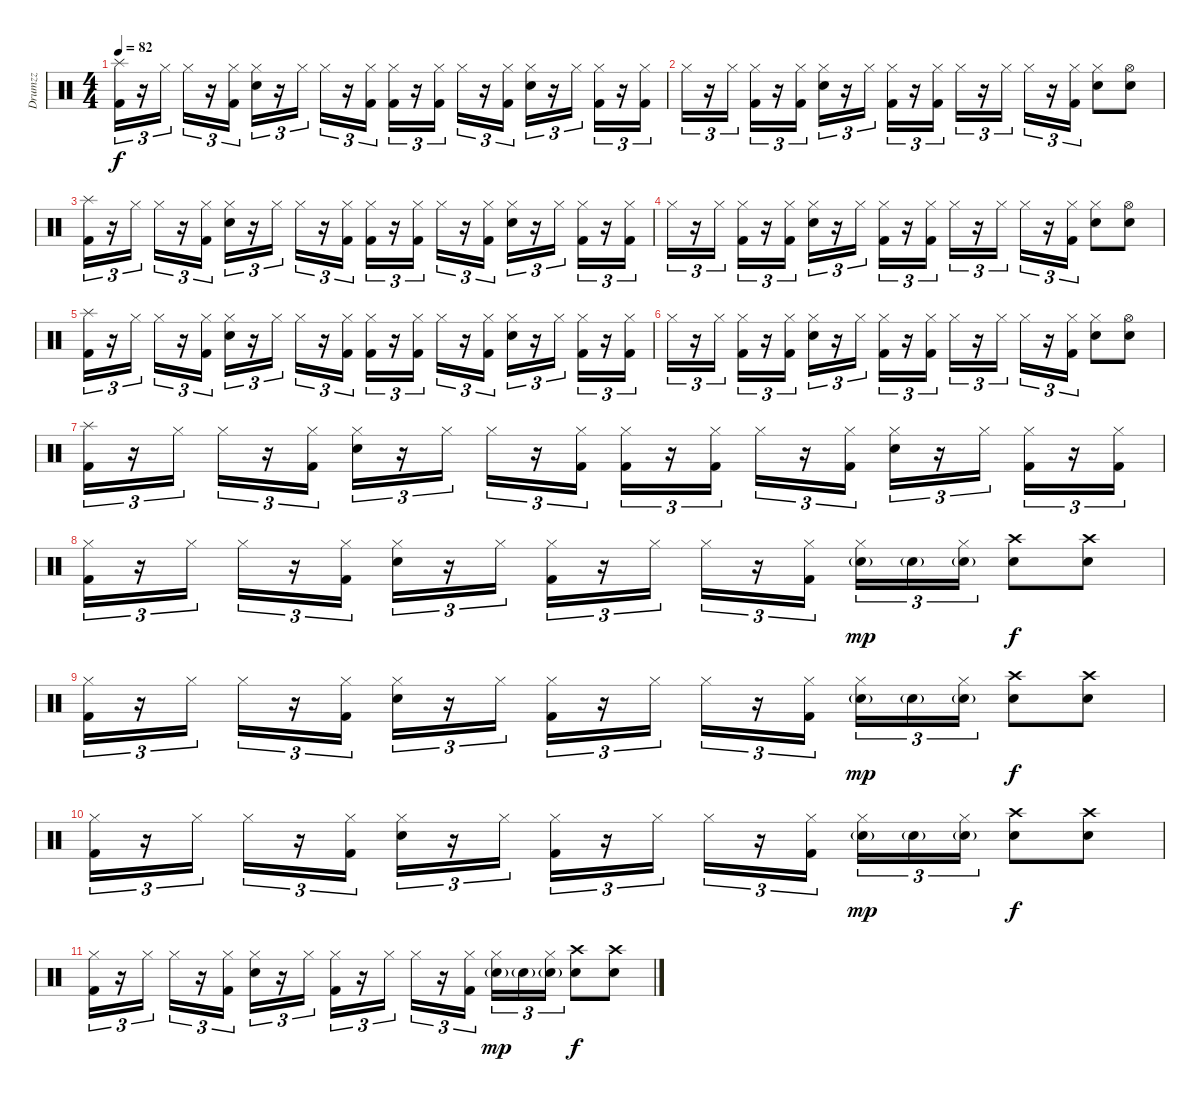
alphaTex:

\track ("Drumzz" "Drumzz") {instrument percussion}
\staff {score}
\articulation defaults
\ts (4 4)
\tempo 82
\clef neutral
\ks c
("Splash (hit)" "Kick (hit) 2").16{tu (3 2) dy f} r.16{tu (3 2)} "Hi-Hat (closed)".16{tu (3 2)} "Hi-Hat (closed)".16{tu (3 2)} r.16{tu (3 2)} ("Hi-Hat (closed)" "Kick (hit) 2").16{tu (3 2)} ("Hi-Hat (closed)" "Snare (hit) 2").16{tu (3 2)} r.16{tu (3 2)} "Hi-Hat (closed)".16{tu (3 2)} "Hi-Hat (closed)".16{tu (3 2)} r.16{tu (3 2)} ("Hi-Hat (closed)" "Kick (hit) 2").16{tu (3 2)} ("Hi-Hat (closed)" "Kick (hit) 2").16{tu (3 2)} r.16{tu (3 2)} ("Hi-Hat (closed)" "Kick (hit) 2").16{tu (3 2)} "Hi-Hat (closed)".16{tu (3 2)} r.16{tu (3 2)} ("Hi-Hat (closed)" "Kick (hit) 2").16{tu (3 2)} ("Hi-Hat (closed)" "Snare (hit) 2").16{tu (3 2)} r.16{tu (3 2)} "Hi-Hat (closed)".16{tu (3 2)} ("Hi-Hat (closed)" "Kick (hit) 2").16{tu (3 2)} r.16{tu (3 2)} ("Hi-Hat (closed)" "Kick (hit) 2").16{tu (3 2)} |
"Hi-Hat (closed)".16{tu (3 2)} r.16{tu (3 2)} "Hi-Hat (closed)".16{tu (3 2)} ("Hi-Hat (closed)" "Kick (hit) 2").16{tu (3 2)} r.16{tu (3 2)} ("Hi-Hat (closed)" "Kick (hit) 2").16{tu (3 2)} ("Hi-Hat (closed)" "Snare (hit) 2").16{tu (3 2)} r.16{tu (3 2)} "Hi-Hat (closed)".16{tu (3 2)} ("Hi-Hat (closed)" "Kick (hit) 2").16{tu (3 2)} r.16{tu (3 2)} ("Hi-Hat (closed)" "Kick (hit) 2").16{tu (3 2)} "Hi-Hat (closed)".16{tu (3 2)} r.16{tu (3 2)} "Hi-Hat (closed)".16{tu (3 2)} "Hi-Hat (closed)".16{tu (3 2)} r.16{tu (3 2)} ("Hi-Hat (closed)" "Kick (hit) 2").16{tu (3 2)} ("Hi-Hat (closed)" "Snare (hit) 2").8 ("Hi-Hat (open)" "Snare (hit) 2").8 |
("Splash (hit)" "Kick (hit) 2").16{tu (3 2)} r.16{tu (3 2)} "Hi-Hat (closed)".16{tu (3 2)} "Hi-Hat (closed)".16{tu (3 2)} r.16{tu (3 2)} ("Hi-Hat (closed)" "Kick (hit) 2").16{tu (3 2)} ("Hi-Hat (closed)" "Snare (hit) 2").16{tu (3 2)} r.16{tu (3 2)} "Hi-Hat (closed)".16{tu (3 2)} "Hi-Hat (closed)".16{tu (3 2)} r.16{tu (3 2)} ("Hi-Hat (closed)" "Kick (hit) 2").16{tu (3 2)} ("Hi-Hat (closed)" "Kick (hit) 2").16{tu (3 2)} r.16{tu (3 2)} ("Hi-Hat (closed)" "Kick (hit) 2").16{tu (3 2)} "Hi-Hat (closed)".16{tu (3 2)} r.16{tu (3 2)} ("Hi-Hat (closed)" "Kick (hit) 2").16{tu (3 2)} ("Hi-Hat (closed)" "Snare (hit) 2").16{tu (3 2)} r.16{tu (3 2)} "Hi-Hat (closed)".16{tu (3 2)} ("Hi-Hat (closed)" "Kick (hit) 2").16{tu (3 2)} r.16{tu (3 2)} ("Hi-Hat (closed)" "Kick (hit) 2").16{tu (3 2)} |
"Hi-Hat (closed)".16{tu (3 2)} r.16{tu (3 2)} "Hi-Hat (closed)".16{tu (3 2)} ("Hi-Hat (closed)" "Kick (hit) 2").16{tu (3 2)} r.16{tu (3 2)} ("Hi-Hat (closed)" "Kick (hit) 2").16{tu (3 2)} ("Hi-Hat (closed)" "Snare (hit) 2").16{tu (3 2)} r.16{tu (3 2)} "Hi-Hat (closed)".16{tu (3 2)} ("Hi-Hat (closed)" "Kick (hit) 2").16{tu (3 2)} r.16{tu (3 2)} ("Hi-Hat (closed)" "Kick (hit) 2").16{tu (3 2)} "Hi-Hat (closed)".16{tu (3 2)} r.16{tu (3 2)} "Hi-Hat (closed)".16{tu (3 2)} "Hi-Hat (closed)".16{tu (3 2)} r.16{tu (3 2)} ("Hi-Hat (closed)" "Kick (hit) 2").16{tu (3 2)} ("Hi-Hat (closed)" "Snare (hit) 2").8 ("Hi-Hat (open)" "Snare (hit) 2").8 |
("Splash (hit)" "Kick (hit) 2").16{tu (3 2)} r.16{tu (3 2)} "Hi-Hat (closed)".16{tu (3 2)} "Hi-Hat (closed)".16{tu (3 2)} r.16{tu (3 2)} ("Hi-Hat (closed)" "Kick (hit) 2").16{tu (3 2)} ("Hi-Hat (closed)" "Snare (hit) 2").16{tu (3 2)} r.16{tu (3 2)} "Hi-Hat (closed)".16{tu (3 2)} "Hi-Hat (closed)".16{tu (3 2)} r.16{tu (3 2)} ("Hi-Hat (closed)" "Kick (hit) 2").16{tu (3 2)} ("Hi-Hat (closed)" "Kick (hit) 2").16{tu (3 2)} r.16{tu (3 2)} ("Hi-Hat (closed)" "Kick (hit) 2").16{tu (3 2)} "Hi-Hat (closed)".16{tu (3 2)} r.16{tu (3 2)} ("Hi-Hat (closed)" "Kick (hit) 2").16{tu (3 2)} ("Hi-Hat (closed)" "Snare (hit) 2").16{tu (3 2)} r.16{tu (3 2)} "Hi-Hat (closed)".16{tu (3 2)} ("Hi-Hat (closed)" "Kick (hit) 2").16{tu (3 2)} r.16{tu (3 2)} ("Hi-Hat (closed)" "Kick (hit) 2").16{tu (3 2)} |
"Hi-Hat (closed)".16{tu (3 2)} r.16{tu (3 2)} "Hi-Hat (closed)".16{tu (3 2)} ("Hi-Hat (closed)" "Kick (hit) 2").16{tu (3 2)} r.16{tu (3 2)} ("Hi-Hat (closed)" "Kick (hit) 2").16{tu (3 2)} ("Hi-Hat (closed)" "Snare (hit) 2").16{tu (3 2)} r.16{tu (3 2)} "Hi-Hat (closed)".16{tu (3 2)} ("Hi-Hat (closed)" "Kick (hit) 2").16{tu (3 2)} r.16{tu (3 2)} ("Hi-Hat (closed)" "Kick (hit) 2").16{tu (3 2)} "Hi-Hat (closed)".16{tu (3 2)} r.16{tu (3 2)} "Hi-Hat (closed)".16{tu (3 2)} "Hi-Hat (closed)".16{tu (3 2)} r.16{tu (3 2)} ("Hi-Hat (closed)" "Kick (hit) 2").16{tu (3 2)} ("Hi-Hat (closed)" "Snare (hit) 2").8 ("Hi-Hat (open)" "Snare (hit) 2").8 |
("Splash (hit)" "Kick (hit) 2").16{tu (3 2)} r.16{tu (3 2)} "Hi-Hat (closed)".16{tu (3 2)} "Hi-Hat (closed)".16{tu (3 2)} r.16{tu (3 2)} ("Hi-Hat (closed)" "Kick (hit) 2").16{tu (3 2)} ("Hi-Hat (closed)" "Snare (hit) 2").16{tu (3 2)} r.16{tu (3 2)} "Hi-Hat (closed)".16{tu (3 2)} "Hi-Hat (closed)".16{tu (3 2)} r.16{tu (3 2)} ("Hi-Hat (closed)" "Kick (hit) 2").16{tu (3 2)} ("Hi-Hat (closed)" "Kick (hit) 2").16{tu (3 2)} r.16{tu (3 2)} ("Hi-Hat (closed)" "Kick (hit) 2").16{tu (3 2)} "Hi-Hat (closed)".16{tu (3 2)} r.16{tu (3 2)} ("Hi-Hat (closed)" "Kick (hit) 2").16{tu (3 2)} ("Hi-Hat (closed)" "Snare (hit) 2").16{tu (3 2)} r.16{tu (3 2)} "Hi-Hat (closed)".16{tu (3 2)} ("Hi-Hat (closed)" "Kick (hit) 2").16{tu (3 2)} r.16{tu (3 2)} ("Hi-Hat (closed)" "Kick (hit) 2").16{tu (3 2)} |
("Hi-Hat (closed)" "Kick (hit) 2").16{tu (3 2)} r.16{tu (3 2)} "Hi-Hat (closed)".16{tu (3 2)} "Hi-Hat (closed)".16{tu (3 2)} r.16{tu (3 2)} ("Hi-Hat (closed)" "Kick (hit) 2").16{tu (3 2)} ("Hi-Hat (closed)" "Snare (hit) 2").16{tu (3 2)} r.16{tu (3 2)} "Hi-Hat (closed)".16{tu (3 2)} ("Hi-Hat (closed)" "Kick (hit) 2").16{tu (3 2)} r.16{tu (3 2)} "Hi-Hat (closed)".16{tu (3 2)} "Hi-Hat (closed)".16{tu (3 2)} r.16{tu (3 2)} ("Hi-Hat (closed)" "Kick (hit) 2").16{tu (3 2) beam splitsecondary} ("Hi-Hat (closed)" "Snare (hit) 2"{g}).16{tu (3 2) dy mp} "Snare (hit) 2"{g}.16{tu (3 2)} ("Hi-Hat (closed)" "Snare (hit) 2"{g}).16{tu (3 2)} ("Crash high (hit)" "Snare (hit) 2").8{dy f} ("Crash high (hit)" "Snare (hit) 2").8 |
("Hi-Hat (closed)" "Kick (hit) 2").16{tu (3 2)} r.16{tu (3 2)} "Hi-Hat (closed)".16{tu (3 2)} "Hi-Hat (closed)".16{tu (3 2)} r.16{tu (3 2)} ("Hi-Hat (closed)" "Kick (hit) 2").16{tu (3 2)} ("Hi-Hat (closed)" "Snare (hit) 2").16{tu (3 2)} r.16{tu (3 2)} "Hi-Hat (closed)".16{tu (3 2)} ("Hi-Hat (closed)" "Kick (hit) 2").16{tu (3 2)} r.16{tu (3 2)} "Hi-Hat (closed)".16{tu (3 2)} "Hi-Hat (closed)".16{tu (3 2)} r.16{tu (3 2)} ("Hi-Hat (closed)" "Kick (hit) 2").16{tu (3 2) beam splitsecondary} ("Hi-Hat (closed)" "Snare (hit) 2"{g}).16{tu (3 2) dy mp} "Snare (hit) 2"{g}.16{tu (3 2)} ("Hi-Hat (closed)" "Snare (hit) 2"{g}).16{tu (3 2)} ("Crash high (hit)" "Snare (hit) 2").8{dy f} ("Crash high (hit)" "Snare (hit) 2").8 |
("Hi-Hat (closed)" "Kick (hit) 2").16{tu (3 2)} r.16{tu (3 2)} "Hi-Hat (closed)".16{tu (3 2)} "Hi-Hat (closed)".16{tu (3 2)} r.16{tu (3 2)} ("Hi-Hat (closed)" "Kick (hit) 2").16{tu (3 2)} ("Hi-Hat (closed)" "Snare (hit) 2").16{tu (3 2)} r.16{tu (3 2)} "Hi-Hat (closed)".16{tu (3 2)} ("Hi-Hat (closed)" "Kick (hit) 2").16{tu (3 2)} r.16{tu (3 2)} "Hi-Hat (closed)".16{tu (3 2)} "Hi-Hat (closed)".16{tu (3 2)} r.16{tu (3 2)} ("Hi-Hat (closed)" "Kick (hit) 2").16{tu (3 2) beam splitsecondary} ("Hi-Hat (closed)" "Snare (hit) 2"{g}).16{tu (3 2) dy mp} "Snare (hit) 2"{g}.16{tu (3 2)} ("Hi-Hat (closed)" "Snare (hit) 2"{g}).16{tu (3 2)} ("Crash high (hit)" "Snare (hit) 2").8{dy f} ("Crash high (hit)" "Snare (hit) 2").8 |
("Hi-Hat (closed)" "Kick (hit) 2").16{tu (3 2)} r.16{tu (3 2)} "Hi-Hat (closed)".16{tu (3 2)} "Hi-Hat (closed)".16{tu (3 2)} r.16{tu (3 2)} ("Hi-Hat (closed)" "Kick (hit) 2").16{tu (3 2)} ("Hi-Hat (closed)" "Snare (hit) 2").16{tu (3 2)} r.16{tu (3 2)} "Hi-Hat (closed)".16{tu (3 2)} ("Hi-Hat (closed)" "Kick (hit) 2").16{tu (3 2)} r.16{tu (3 2)} "Hi-Hat (closed)".16{tu (3 2)} "Hi-Hat (closed)".16{tu (3 2)} r.16{tu (3 2)} ("Hi-Hat (closed)" "Kick (hit) 2").16{tu (3 2) beam splitsecondary} ("Hi-Hat (closed)" "Snare (hit) 2"{g}).16{tu (3 2) dy mp} "Snare (hit) 2"{g}.16{tu (3 2)} ("Hi-Hat (closed)" "Snare (hit) 2"{g}).16{tu (3 2)} ("Crash high (hit)" "Snare (hit) 2").8{dy f} ("Crash high (hit)" "Snare (hit) 2").8
